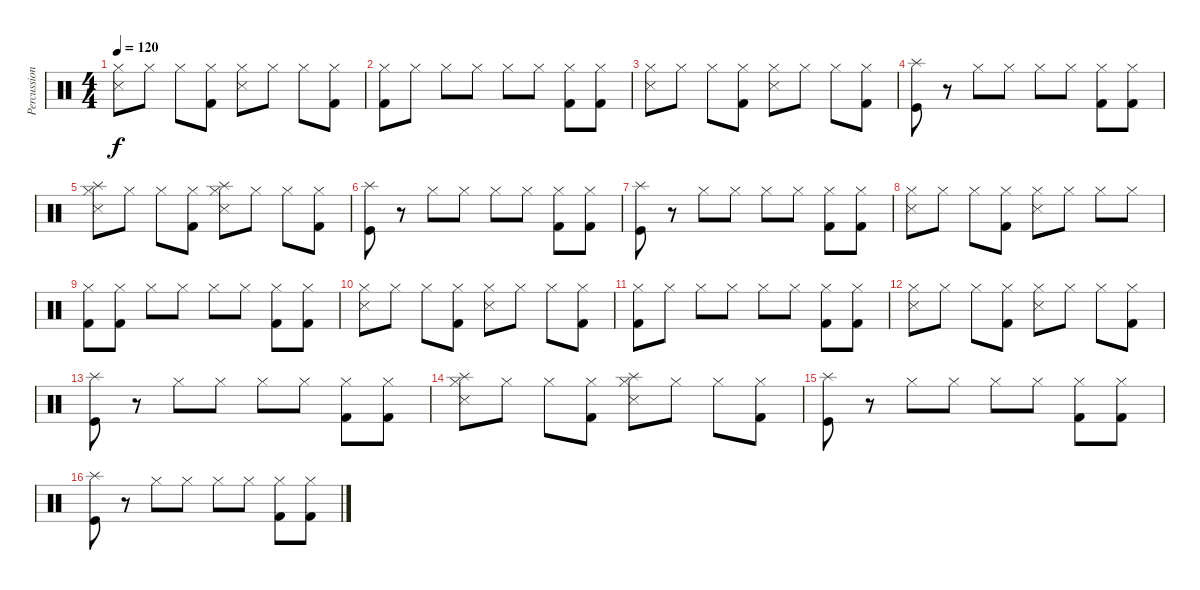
\track ("Percussion" "Percussion") {instrument percussion}
\staff {score}
\articulation defaults
\ts (4 4)
\tempo 120
\clef neutral
\ks c
("Snare (side stick) 3" "Hi-Hat (closed)").8{dy f} "Hi-Hat (closed)".8 "Hi-Hat (closed)".8 ("Kick (hit) 2" "Hi-Hat (closed)").8 ("Snare (side stick) 3" "Hi-Hat (closed)").8 "Hi-Hat (closed)".8 "Hi-Hat (closed)".8 ("Kick (hit) 2" "Hi-Hat (closed)").8 |
("Kick (hit) 2" "Hi-Hat (closed)").8 "Hi-Hat (closed)".8 "Hi-Hat (closed)".8 "Hi-Hat (closed)".8 "Hi-Hat (closed)".8 "Hi-Hat (closed)".8 ("Kick (hit) 2" "Hi-Hat (closed)").8 ("Kick (hit) 2" "Hi-Hat (closed)").8 |
("Snare (side stick) 3" "Hi-Hat (closed)").8 "Hi-Hat (closed)".8 "Hi-Hat (closed)".8 ("Kick (hit) 2" "Hi-Hat (closed)").8 ("Snare (side stick) 3" "Hi-Hat (closed)").8 "Hi-Hat (closed)".8 "Hi-Hat (closed)".8 ("Kick (hit) 2" "Hi-Hat (closed)").8 |
("Splash (hit)" "Kick (hit)").8 r.8 "Hi-Hat (closed)".8 "Hi-Hat (closed)".8 "Hi-Hat (closed)".8 "Hi-Hat (closed)".8 ("Kick (hit) 2" "Hi-Hat (closed)").8 ("Kick (hit) 2" "Hi-Hat (closed)").8 |
("Splash (hit)" "Snare (side stick) 3" "Hi-Hat (closed)").8 "Hi-Hat (closed)".8 "Hi-Hat (closed)".8 ("Kick (hit) 2" "Hi-Hat (closed)").8 ("Splash (hit)" "Snare (side stick) 3" "Hi-Hat (closed)").8 "Hi-Hat (closed)".8 "Hi-Hat (closed)".8 ("Kick (hit) 2" "Hi-Hat (closed)").8 |
("Splash (hit)" "Kick (hit)").8 r.8 "Hi-Hat (closed)".8 "Hi-Hat (closed)".8 "Hi-Hat (closed)".8 "Hi-Hat (closed)".8 ("Kick (hit) 2" "Hi-Hat (closed)").8 ("Kick (hit) 2" "Hi-Hat (closed)").8 |
("Splash (hit)" "Kick (hit)").8 r.8 "Hi-Hat (closed)".8 "Hi-Hat (closed)".8 "Hi-Hat (closed)".8 "Hi-Hat (closed)".8 ("Kick (hit) 2" "Hi-Hat (closed)").8 ("Kick (hit) 2" "Hi-Hat (closed)").8 |
("Snare (side stick) 3" "Hi-Hat (closed)").8 "Hi-Hat (closed)".8 "Hi-Hat (closed)".8 ("Kick (hit) 2" "Hi-Hat (closed)").8 ("Snare (side stick) 3" "Hi-Hat (closed)").8 "Hi-Hat (closed)".8 "Hi-Hat (closed)".8 "Hi-Hat (closed)".8 |
("Kick (hit) 2" "Hi-Hat (closed)").8 ("Kick (hit) 2" "Hi-Hat (closed)").8 "Hi-Hat (closed)".8 "Hi-Hat (closed)".8 "Hi-Hat (closed)".8 "Hi-Hat (closed)".8 ("Kick (hit) 2" "Hi-Hat (closed)").8 ("Kick (hit) 2" "Hi-Hat (closed)").8 |
("Snare (side stick) 3" "Hi-Hat (closed)").8 "Hi-Hat (closed)".8 "Hi-Hat (closed)".8 ("Kick (hit) 2" "Hi-Hat (closed)").8 ("Snare (side stick) 3" "Hi-Hat (closed)").8 "Hi-Hat (closed)".8 "Hi-Hat (closed)".8 ("Kick (hit) 2" "Hi-Hat (closed)").8 |
("Kick (hit) 2" "Hi-Hat (closed)").8 "Hi-Hat (closed)".8 "Hi-Hat (closed)".8 "Hi-Hat (closed)".8 "Hi-Hat (closed)".8 "Hi-Hat (closed)".8 ("Kick (hit) 2" "Hi-Hat (closed)").8 ("Kick (hit) 2" "Hi-Hat (closed)").8 |
("Snare (side stick) 3" "Hi-Hat (closed)").8 "Hi-Hat (closed)".8 "Hi-Hat (closed)".8 ("Kick (hit) 2" "Hi-Hat (closed)").8 ("Snare (side stick) 3" "Hi-Hat (closed)").8 "Hi-Hat (closed)".8 "Hi-Hat (closed)".8 ("Kick (hit) 2" "Hi-Hat (closed)").8 |
("Splash (hit)" "Kick (hit)").8 r.8 "Hi-Hat (closed)".8 "Hi-Hat (closed)".8 "Hi-Hat (closed)".8 "Hi-Hat (closed)".8 ("Kick (hit) 2" "Hi-Hat (closed)").8 ("Kick (hit) 2" "Hi-Hat (closed)").8 |
("Splash (hit)" "Snare (side stick) 3" "Hi-Hat (closed)").8 "Hi-Hat (closed)".8 "Hi-Hat (closed)".8 ("Kick (hit) 2" "Hi-Hat (closed)").8 ("Splash (hit)" "Snare (side stick) 3" "Hi-Hat (closed)").8 "Hi-Hat (closed)".8 "Hi-Hat (closed)".8 ("Kick (hit) 2" "Hi-Hat (closed)").8 |
("Splash (hit)" "Kick (hit)").8 r.8 "Hi-Hat (closed)".8 "Hi-Hat (closed)".8 "Hi-Hat (closed)".8 "Hi-Hat (closed)".8 ("Kick (hit) 2" "Hi-Hat (closed)").8 ("Kick (hit) 2" "Hi-Hat (closed)").8 |
("Splash (hit)" "Kick (hit)").8 r.8 "Hi-Hat (closed)".8 "Hi-Hat (closed)".8 "Hi-Hat (closed)".8 "Hi-Hat (closed)".8 ("Kick (hit) 2" "Hi-Hat (closed)").8 ("Kick (hit) 2" "Hi-Hat (closed)").8
